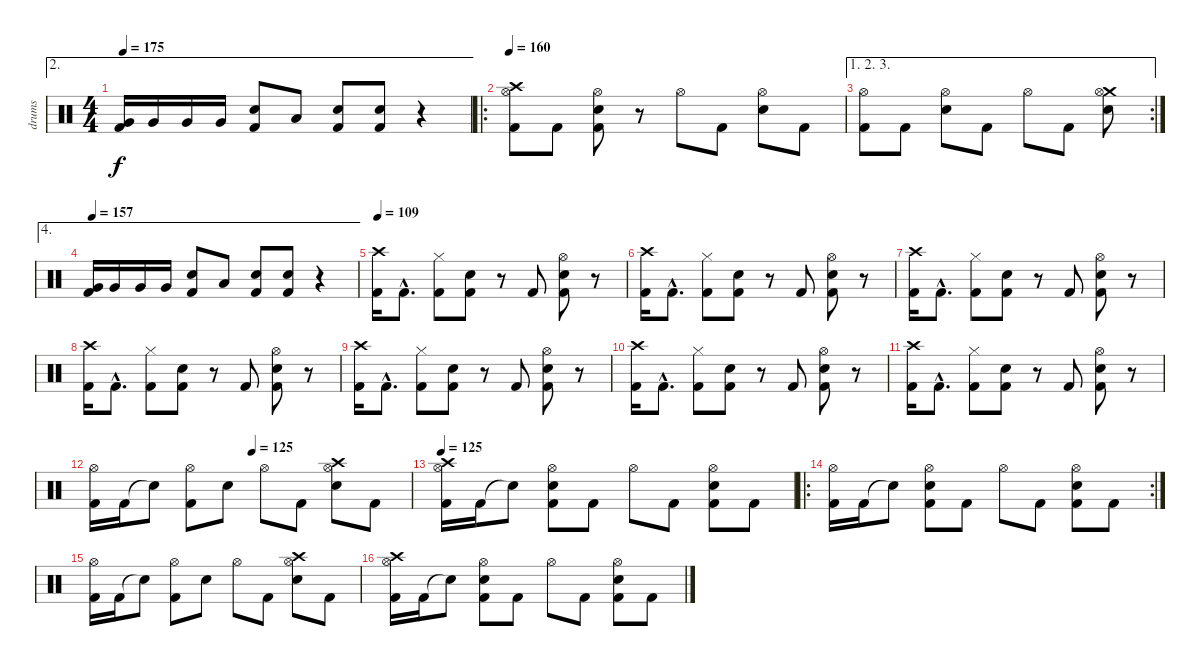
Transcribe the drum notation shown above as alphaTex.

\track ("drums" "drums") {instrument percussion}
\staff {score}
\articulation defaults
\ae 2
\ts (4 4)
\tempo 175
\clef neutral
\ks c
("Very Low Tom (hit)" "Kick (hit) 2").16{dy f} "Very Low Tom (hit)".16 "Very Low Tom (hit)".16 "Very Low Tom (hit)".16 ("Electric Snare (hit)" "Kick (hit) 2").8 "Low Floor Tom (hit)".8 ("Electric Snare (hit)" "Kick (hit) 2").8 ("Electric Snare (hit)" "Kick (hit) 2").8 r.4 |
\ro
\tempo 157
\tempo 160
("Crash high (hit)" "Hi-Hat (open)" "Kick (hit) 2").8 "Kick (hit) 2".8 ("Hi-Hat (open)" "Electric Snare (hit)" "Kick (hit) 2").8 r.8 "Hi-Hat (open)".8 "Kick (hit) 2".8 ("Hi-Hat (open)" "Electric Snare (hit)").8 "Kick (hit) 2".8 |
\ae (1 2 3)
\rc 2
("Hi-Hat (open)" "Kick (hit) 2").8 "Kick (hit) 2".8 ("Hi-Hat (open)" "Electric Snare (hit)").8 "Kick (hit) 2".8 "Hi-Hat (open)".8 "Kick (hit) 2".8 ("Crash medium (hit)" "Hi-Hat (open)" "Electric Snare (hit)").8 |
\ae 4
\tempo 157
("Very Low Tom (hit)" "Kick (hit) 2").16 "Very Low Tom (hit)".16 "Very Low Tom (hit)".16 "Very Low Tom (hit)".16 ("Electric Snare (hit)" "Kick (hit) 2").8 "Low Floor Tom (hit)".8 ("Electric Snare (hit)" "Kick (hit) 2").8 ("Electric Snare (hit)" "Kick (hit) 2").8 r.4 |
\tempo 109
("Crash high (hit)" "Kick (hit) 2").16 "Kick (hit) 2"{hac}.8{d} ("Hi-Hat (closed)" "Kick (hit) 2").8 ("Electric Snare (hit)" "Kick (hit) 2").8 r.8 "Kick (hit) 2".8 ("Hi-Hat (open)" "Electric Snare (hit)" "Kick (hit) 2").8 r.8 |
("Crash high (hit)" "Kick (hit) 2").16 "Kick (hit) 2"{hac}.8{d} ("Hi-Hat (closed)" "Kick (hit) 2").8 ("Electric Snare (hit)" "Kick (hit) 2").8 r.8 "Kick (hit) 2".8 ("Hi-Hat (open)" "Electric Snare (hit)" "Kick (hit) 2").8 r.8 |
("Crash high (hit)" "Kick (hit) 2").16 "Kick (hit) 2"{hac}.8{d} ("Hi-Hat (closed)" "Kick (hit) 2").8 ("Electric Snare (hit)" "Kick (hit) 2").8 r.8 "Kick (hit) 2".8 ("Hi-Hat (open)" "Electric Snare (hit)" "Kick (hit) 2").8 r.8 |
("Crash high (hit)" "Kick (hit) 2").16 "Kick (hit) 2"{hac}.8{d} ("Hi-Hat (closed)" "Kick (hit) 2").8 ("Electric Snare (hit)" "Kick (hit) 2").8 r.8 "Kick (hit) 2".8 ("Hi-Hat (open)" "Electric Snare (hit)" "Kick (hit) 2").8 r.8 |
("Crash high (hit)" "Kick (hit) 2").16 "Kick (hit) 2"{hac}.8{d} ("Hi-Hat (closed)" "Kick (hit) 2").8 ("Electric Snare (hit)" "Kick (hit) 2").8 r.8 "Kick (hit) 2".8 ("Hi-Hat (open)" "Electric Snare (hit)" "Kick (hit) 2").8 r.8 |
("Crash high (hit)" "Kick (hit) 2").16 "Kick (hit) 2"{hac}.8{d} ("Hi-Hat (closed)" "Kick (hit) 2").8 ("Electric Snare (hit)" "Kick (hit) 2").8 r.8 "Kick (hit) 2".8 ("Hi-Hat (open)" "Electric Snare (hit)" "Kick (hit) 2").8 r.8 |
("Crash high (hit)" "Kick (hit) 2").16 "Kick (hit) 2"{hac}.8{d} ("Hi-Hat (closed)" "Kick (hit) 2").8 ("Electric Snare (hit)" "Kick (hit) 2").8 r.8 "Kick (hit) 2".8 ("Hi-Hat (open)" "Electric Snare (hit)" "Kick (hit) 2").8 r.8 |
\tempo (125 0.5)
("Hi-Hat (open)" "Kick (hit) 2").16 "Kick (hit) 2".16 "Snare (hit)"{t}.8 ("Hi-Hat (open)" "Kick (hit) 2").8 "Electric Snare (hit)".8 "Hi-Hat (open)".8 "Kick (hit) 2".8 ("Crash high (hit)" "Hi-Hat (open)" "Electric Snare (hit)").8 "Kick (hit) 2".8 |
\tempo 125
("Crash high (hit)" "Hi-Hat (open)" "Kick (hit) 2").16 "Kick (hit) 2".16 "Snare (hit)"{t}.8 ("Hi-Hat (open)" "Electric Snare (hit)" "Kick (hit) 2").8 "Kick (hit) 2".8 "Hi-Hat (open)".8 "Kick (hit) 2".8 ("Hi-Hat (open)" "Electric Snare (hit)" "Kick (hit) 2").8 "Kick (hit) 2".8 |
\ro
\rc 2
("Hi-Hat (open)" "Kick (hit) 2").16 "Kick (hit) 2".16 "Snare (hit)"{t}.8 ("Hi-Hat (open)" "Electric Snare (hit)" "Kick (hit) 2").8 "Kick (hit) 2".8 "Hi-Hat (open)".8 "Kick (hit) 2".8 ("Hi-Hat (open)" "Electric Snare (hit)" "Kick (hit) 2").8 "Kick (hit) 2".8 |
("Hi-Hat (open)" "Kick (hit) 2").16 "Kick (hit) 2".16 "Snare (hit)"{t}.8 ("Hi-Hat (open)" "Kick (hit) 2").8 "Electric Snare (hit)".8 "Hi-Hat (open)".8 "Kick (hit) 2".8 ("Crash high (hit)" "Hi-Hat (open)" "Electric Snare (hit)").8 "Kick (hit) 2".8 |
("Crash high (hit)" "Hi-Hat (open)" "Kick (hit) 2").16 "Kick (hit) 2".16 "Snare (hit)"{t}.8 ("Hi-Hat (open)" "Electric Snare (hit)" "Kick (hit) 2").8 "Kick (hit) 2".8 "Hi-Hat (open)".8 "Kick (hit) 2".8 ("Hi-Hat (open)" "Electric Snare (hit)" "Kick (hit) 2").8 "Kick (hit) 2".8
